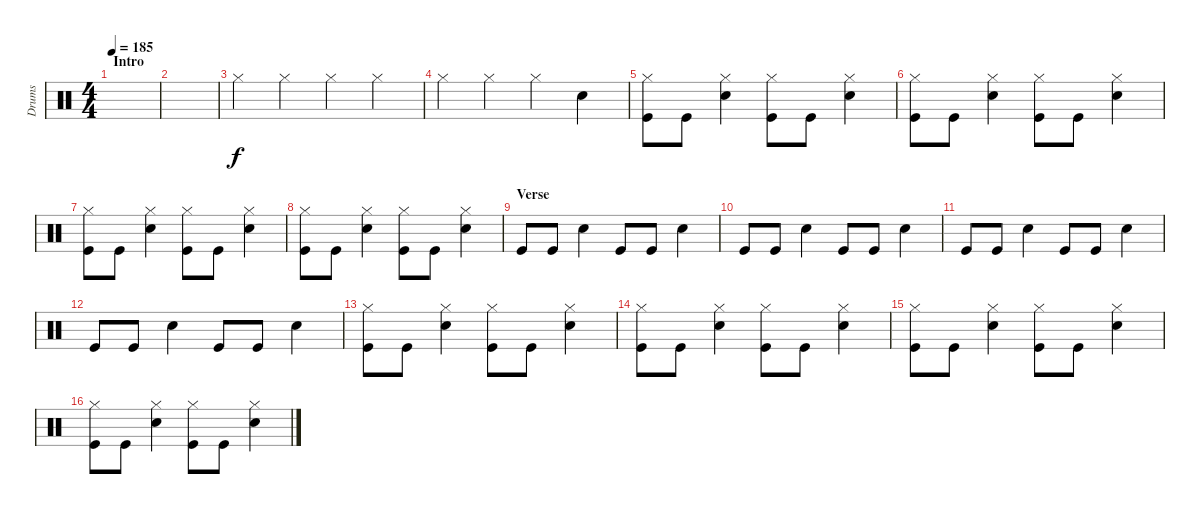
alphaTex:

\track ("Drums" "Drums") {instrument percussion}
\staff {score}
\articulation defaults
\ts (4 4)
\section ("" "Intro")
\tempo 185
\clef neutral
\ks c
|
|
"Hi-Hat (closed)".4 "Hi-Hat (closed)".4 "Hi-Hat (closed)".4 "Hi-Hat (closed)".4 |
"Hi-Hat (closed)".4 "Hi-Hat (closed)".4 "Hi-Hat (closed)".4 "Electric Snare (hit)".4 |
("Kick (hit)" "Hi-Hat (closed)").8 "Kick (hit)".8 ("Electric Snare (hit)" "Hi-Hat (closed)").4 ("Kick (hit)" "Hi-Hat (closed)").8 "Kick (hit)".8 ("Electric Snare (hit)" "Hi-Hat (closed)").4 |
("Kick (hit)" "Hi-Hat (closed)").8 "Kick (hit)".8 ("Electric Snare (hit)" "Hi-Hat (closed)").4 ("Kick (hit)" "Hi-Hat (closed)").8 "Kick (hit)".8 ("Electric Snare (hit)" "Hi-Hat (closed)").4 |
("Kick (hit)" "Hi-Hat (closed)").8 "Kick (hit)".8 ("Electric Snare (hit)" "Hi-Hat (closed)").4 ("Kick (hit)" "Hi-Hat (closed)").8 "Kick (hit)".8 ("Electric Snare (hit)" "Hi-Hat (closed)").4 |
("Kick (hit)" "Hi-Hat (closed)").8 "Kick (hit)".8 ("Electric Snare (hit)" "Hi-Hat (closed)").4 ("Kick (hit)" "Hi-Hat (closed)").8 "Kick (hit)".8 ("Electric Snare (hit)" "Hi-Hat (closed)").4 |
\section ("" "Verse")
"Kick (hit)".8 "Kick (hit)".8 "Electric Snare (hit)".4 "Kick (hit)".8 "Kick (hit)".8 "Electric Snare (hit)".4 |
"Kick (hit)".8 "Kick (hit)".8 "Electric Snare (hit)".4 "Kick (hit)".8 "Kick (hit)".8 "Electric Snare (hit)".4 |
"Kick (hit)".8 "Kick (hit)".8 "Electric Snare (hit)".4 "Kick (hit)".8 "Kick (hit)".8 "Electric Snare (hit)".4 |
"Kick (hit)".8 "Kick (hit)".8 "Electric Snare (hit)".4 "Kick (hit)".8 "Kick (hit)".8 "Electric Snare (hit)".4 |
("Kick (hit)" "Hi-Hat (closed)").8 "Kick (hit)".8 ("Electric Snare (hit)" "Hi-Hat (closed)").4 ("Kick (hit)" "Hi-Hat (closed)").8 "Kick (hit)".8 ("Electric Snare (hit)" "Hi-Hat (closed)").4 |
("Kick (hit)" "Hi-Hat (closed)").8 "Kick (hit)".8 ("Electric Snare (hit)" "Hi-Hat (closed)").4 ("Kick (hit)" "Hi-Hat (closed)").8 "Kick (hit)".8 ("Electric Snare (hit)" "Hi-Hat (closed)").4 |
("Kick (hit)" "Hi-Hat (closed)").8 "Kick (hit)".8 ("Electric Snare (hit)" "Hi-Hat (closed)").4 ("Kick (hit)" "Hi-Hat (closed)").8 "Kick (hit)".8 ("Electric Snare (hit)" "Hi-Hat (closed)").4 |
("Kick (hit)" "Hi-Hat (closed)").8 "Kick (hit)".8 ("Electric Snare (hit)" "Hi-Hat (closed)").4 ("Kick (hit)" "Hi-Hat (closed)").8 "Kick (hit)".8 ("Electric Snare (hit)" "Hi-Hat (closed)").4
